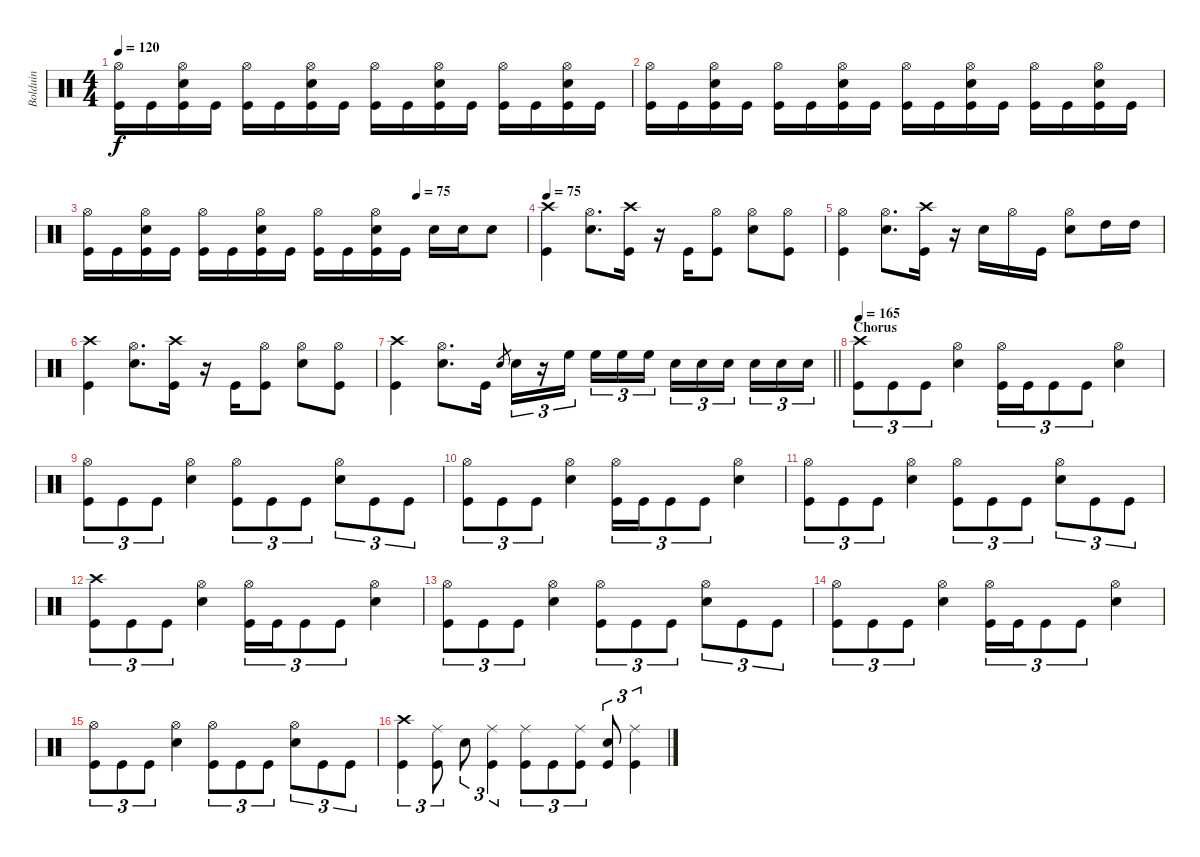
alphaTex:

\track ("Bolduin" "Bolduin") {instrument percussion}
\staff {score}
\articulation defaults
\ts (4 4)
\tempo 120
\clef neutral
\ks aminor
("Kick (hit)" "Hi-Hat (open)").16{dy f} "Kick (hit)".16 ("Kick (hit)" "Snare (hit) 2" "Hi-Hat (open)").16 "Kick (hit)".16 ("Kick (hit)" "Hi-Hat (open)").16 "Kick (hit)".16 ("Kick (hit)" "Snare (hit) 2" "Hi-Hat (open)").16 "Kick (hit)".16 ("Kick (hit)" "Hi-Hat (open)").16 "Kick (hit)".16 ("Kick (hit)" "Snare (hit) 2" "Hi-Hat (open)").16 "Kick (hit)".16 ("Kick (hit)" "Hi-Hat (open)").16 "Kick (hit)".16 ("Kick (hit)" "Snare (hit) 2" "Hi-Hat (open)").16 "Kick (hit)".16 |
("Kick (hit)" "Hi-Hat (open)").16 "Kick (hit)".16 ("Kick (hit)" "Snare (hit) 2" "Hi-Hat (open)").16 "Kick (hit)".16 ("Kick (hit)" "Hi-Hat (open)").16 "Kick (hit)".16 ("Kick (hit)" "Snare (hit) 2" "Hi-Hat (open)").16 "Kick (hit)".16 ("Kick (hit)" "Hi-Hat (open)").16 "Kick (hit)".16 ("Kick (hit)" "Snare (hit) 2" "Hi-Hat (open)").16 "Kick (hit)".16 ("Kick (hit)" "Hi-Hat (open)").16 "Kick (hit)".16 ("Kick (hit)" "Snare (hit) 2" "Hi-Hat (open)").16 "Kick (hit)".16 |
\tempo (75 0.75)
("Kick (hit)" "Hi-Hat (open)").16 "Kick (hit)".16 ("Kick (hit)" "Snare (hit) 2" "Hi-Hat (open)").16 "Kick (hit)".16 ("Kick (hit)" "Hi-Hat (open)").16 "Kick (hit)".16 ("Kick (hit)" "Snare (hit) 2" "Hi-Hat (open)").16 "Kick (hit)".16 ("Kick (hit)" "Hi-Hat (open)").16 "Kick (hit)".16 ("Kick (hit)" "Snare (hit) 2" "Hi-Hat (open)").16 "Kick (hit)".16 "Snare (hit) 2".16 "Snare (hit) 2".16 "Snare (hit) 2".8 |
\tempo 75
("Crash high (hit)" "Kick (hit)").4 ("Hi-Hat (open)" "Snare (hit) 2").8{d} ("Kick (hit)" "Crash high (hit)").16 r.16 "Kick (hit)".16 ("Kick (hit)" "Hi-Hat (open)").8 ("Snare (hit) 2" "Hi-Hat (open)").8 ("Hi-Hat (open)" "Kick (hit)").8 |
("Hi-Hat (open)" "Kick (hit)").4 ("Hi-Hat (open)" "Snare (hit) 2").8{d} ("Kick (hit)" "Crash high (hit)").16 r.16 "Snare (hit) 2".16 "Hi-Hat (open)".16 "Kick (hit)".16 ("Snare (hit) 2" "Hi-Hat (open)").8 "High Tom (hit)".16 "High Tom (hit)".16 |
("Crash high (hit)" "Kick (hit)").4 ("Hi-Hat (open)" "Snare (hit) 2").8{d} ("Kick (hit)" "Crash high (hit)").16 r.16 "Kick (hit)".16 ("Kick (hit)" "Hi-Hat (open)").8 ("Snare (hit) 2" "Hi-Hat (open)").8 ("Kick (hit)" "Hi-Hat (open)").8 |
\barLineRight lightlight
("Crash high (hit)" "Kick (hit)").4 ("Hi-Hat (open)" "Snare (hit) 2").8{d} "Kick (hit)".16 "Snare (hit) 2".8{gr} "Snare (hit) 2".16{tu (3 2)} r.16{tu (3 2)} "High Floor Tom (hit)".16{tu (3 2) beam splitsecondary} "High Floor Tom (hit)".16{tu (3 2)} "High Floor Tom (hit)".16{tu (3 2)} "High Floor Tom (hit)".16{tu (3 2)} "Snare (hit) 2".16{tu (3 2)} "Snare (hit) 2".16{tu (3 2)} "Snare (hit) 2".16{tu (3 2) beam splitsecondary} "Snare (hit) 2".16{tu (3 2)} "Snare (hit) 2".16{tu (3 2)} "Snare (hit) 2".16{tu (3 2)} |
\section ("" "Chorus")
\tempo 165
("Crash high (hit)" "Kick (hit)").8{tu (3 2)} "Kick (hit)".8{tu (3 2)} "Kick (hit)".8{tu (3 2)} ("Hi-Hat (open)" "Snare (hit) 2").4 ("Hi-Hat (open)" "Kick (hit)").16{tu (3 2)} "Kick (hit)".16{tu (3 2)} "Kick (hit)".8{tu (3 2)} "Kick (hit)".8{tu (3 2)} ("Hi-Hat (open)" "Snare (hit) 2").4 |
("Hi-Hat (open)" "Kick (hit)").8{tu (3 2)} "Kick (hit)".8{tu (3 2)} "Kick (hit)".8{tu (3 2)} ("Hi-Hat (open)" "Snare (hit) 2").4 ("Hi-Hat (open)" "Kick (hit)").8{tu (3 2)} "Kick (hit)".8{tu (3 2)} "Kick (hit)".8{tu (3 2)} ("Hi-Hat (open)" "Snare (hit) 2").8{tu (3 2)} "Kick (hit)".8{tu (3 2)} "Kick (hit)".8{tu (3 2)} |
("Hi-Hat (open)" "Kick (hit)").8{tu (3 2)} "Kick (hit)".8{tu (3 2)} "Kick (hit)".8{tu (3 2)} ("Hi-Hat (open)" "Snare (hit) 2").4 ("Hi-Hat (open)" "Kick (hit)").16{tu (3 2)} "Kick (hit)".16{tu (3 2)} "Kick (hit)".8{tu (3 2)} "Kick (hit)".8{tu (3 2)} ("Hi-Hat (open)" "Snare (hit) 2").4 |
("Hi-Hat (open)" "Kick (hit)").8{tu (3 2)} "Kick (hit)".8{tu (3 2)} "Kick (hit)".8{tu (3 2)} ("Hi-Hat (open)" "Snare (hit) 2").4 ("Hi-Hat (open)" "Kick (hit)").8{tu (3 2)} "Kick (hit)".8{tu (3 2)} "Kick (hit)".8{tu (3 2)} ("Hi-Hat (open)" "Snare (hit) 2").8{tu (3 2)} "Kick (hit)".8{tu (3 2)} "Kick (hit)".8{tu (3 2)} |
("Crash high (hit)" "Kick (hit)").8{tu (3 2)} "Kick (hit)".8{tu (3 2)} "Kick (hit)".8{tu (3 2)} ("Hi-Hat (open)" "Snare (hit) 2").4 ("Hi-Hat (open)" "Kick (hit)").16{tu (3 2)} "Kick (hit)".16{tu (3 2)} "Kick (hit)".8{tu (3 2)} "Kick (hit)".8{tu (3 2)} ("Hi-Hat (open)" "Snare (hit) 2").4 |
("Hi-Hat (open)" "Kick (hit)").8{tu (3 2)} "Kick (hit)".8{tu (3 2)} "Kick (hit)".8{tu (3 2)} ("Hi-Hat (open)" "Snare (hit) 2").4 ("Hi-Hat (open)" "Kick (hit)").8{tu (3 2)} "Kick (hit)".8{tu (3 2)} "Kick (hit)".8{tu (3 2)} ("Hi-Hat (open)" "Snare (hit) 2").8{tu (3 2)} "Kick (hit)".8{tu (3 2)} "Kick (hit)".8{tu (3 2)} |
("Hi-Hat (open)" "Kick (hit)").8{tu (3 2)} "Kick (hit)".8{tu (3 2)} "Kick (hit)".8{tu (3 2)} ("Hi-Hat (open)" "Snare (hit) 2").4 ("Hi-Hat (open)" "Kick (hit)").16{tu (3 2)} "Kick (hit)".16{tu (3 2)} "Kick (hit)".8{tu (3 2)} "Kick (hit)".8{tu (3 2)} ("Hi-Hat (open)" "Snare (hit) 2").4 |
("Hi-Hat (open)" "Kick (hit)").8{tu (3 2)} "Kick (hit)".8{tu (3 2)} "Kick (hit)".8{tu (3 2)} ("Hi-Hat (open)" "Snare (hit) 2").4 ("Hi-Hat (open)" "Kick (hit)").8{tu (3 2)} "Kick (hit)".8{tu (3 2)} "Kick (hit)".8{tu (3 2)} ("Hi-Hat (open)" "Snare (hit) 2").8{tu (3 2)} "Kick (hit)".8{tu (3 2)} "Kick (hit)".8{tu (3 2)} |
("Crash high (hit)" "Kick (hit)").4{tu (3 2)} ("Kick (hit)" "Ride (middle)").8{tu (3 2)} "Snare (hit) 2".8{tu (3 2)} ("Kick (hit)" "Ride (middle)").4{tu (3 2)} ("Kick (hit)" "Ride (middle)").8{tu (3 2)} "Kick (hit)".8{tu (3 2)} ("Kick (hit)" "Ride (middle)").8{tu (3 2)} ("Kick (hit)" "Snare (hit) 2").8{tu (3 2)} ("Kick (hit)" "Ride (middle)").4{tu (3 2)}
